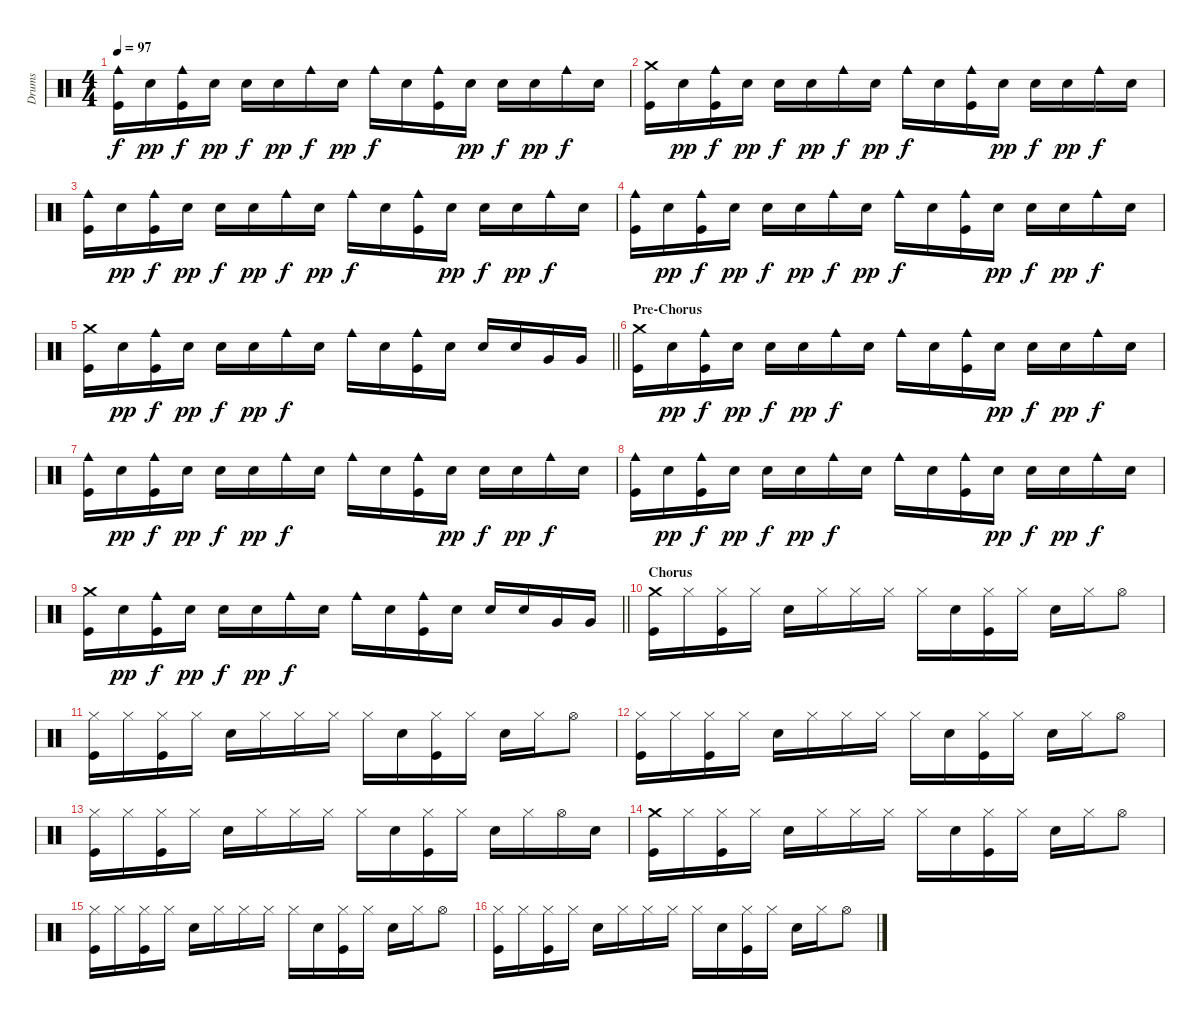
\track ("Drums" "Drums") {instrument percussion}
\staff {score}
\articulation defaults
\ts (4 4)
\tempo 97
\clef neutral
\ks c
("Cowbell medium (hit)" "Kick (hit)").16{dy f} "Electric Snare (hit)".16{dy pp} ("Cowbell medium (hit)" "Kick (hit)").16{dy f} "Electric Snare (hit)".16{dy pp} "Electric Snare (hit)".16{dy f} "Electric Snare (hit)".16{dy pp} "Cowbell medium (hit)".16{dy f} "Electric Snare (hit)".16{dy pp} "Cowbell medium (hit)".16{dy f} "Electric Snare (hit)".16 ("Cowbell medium (hit)" "Kick (hit)").16 "Electric Snare (hit)".16{dy pp} "Electric Snare (hit)".16{dy f} "Electric Snare (hit)".16{dy pp} "Cowbell medium (hit)".16{dy f} "Electric Snare (hit)".16 |
("Crash medium (hit)" "Kick (hit)").16 "Electric Snare (hit)".16{dy pp} ("Cowbell medium (hit)" "Kick (hit)").16{dy f} "Electric Snare (hit)".16{dy pp} "Electric Snare (hit)".16{dy f} "Electric Snare (hit)".16{dy pp} "Cowbell medium (hit)".16{dy f} "Electric Snare (hit)".16{dy pp} "Cowbell medium (hit)".16{dy f} "Electric Snare (hit)".16 ("Cowbell medium (hit)" "Kick (hit)").16 "Electric Snare (hit)".16{dy pp} "Electric Snare (hit)".16{dy f} "Electric Snare (hit)".16{dy pp} "Cowbell medium (hit)".16{dy f} "Electric Snare (hit)".16 |
("Cowbell medium (hit)" "Kick (hit)").16 "Electric Snare (hit)".16{dy pp} ("Cowbell medium (hit)" "Kick (hit)").16{dy f} "Electric Snare (hit)".16{dy pp} "Electric Snare (hit)".16{dy f} "Electric Snare (hit)".16{dy pp} "Cowbell medium (hit)".16{dy f} "Electric Snare (hit)".16{dy pp} "Cowbell medium (hit)".16{dy f} "Electric Snare (hit)".16 ("Cowbell medium (hit)" "Kick (hit)").16 "Electric Snare (hit)".16{dy pp} "Electric Snare (hit)".16{dy f} "Electric Snare (hit)".16{dy pp} "Cowbell medium (hit)".16{dy f} "Electric Snare (hit)".16 |
("Cowbell medium (hit)" "Kick (hit)").16 "Electric Snare (hit)".16{dy pp} ("Cowbell medium (hit)" "Kick (hit)").16{dy f} "Electric Snare (hit)".16{dy pp} "Electric Snare (hit)".16{dy f} "Electric Snare (hit)".16{dy pp} "Cowbell medium (hit)".16{dy f} "Electric Snare (hit)".16{dy pp} "Cowbell medium (hit)".16{dy f} "Electric Snare (hit)".16 ("Cowbell medium (hit)" "Kick (hit)").16 "Electric Snare (hit)".16{dy pp} "Electric Snare (hit)".16{dy f} "Electric Snare (hit)".16{dy pp} "Cowbell medium (hit)".16{dy f} "Electric Snare (hit)".16 |
\barLineRight lightlight
("Crash medium (hit)" "Kick (hit)").16 "Electric Snare (hit)".16{dy pp} ("Cowbell medium (hit)" "Kick (hit)").16{dy f} "Electric Snare (hit)".16{dy pp} "Electric Snare (hit)".16{dy f} "Electric Snare (hit)".16{dy pp} "Cowbell medium (hit)".16{dy f} "Electric Snare (hit)".16 "Cowbell medium (hit)".16 "Electric Snare (hit)".16 ("Cowbell medium (hit)" "Kick (hit)").16 "Electric Snare (hit)".16 "Electric Snare (hit)".16 "Electric Snare (hit)".16 "Very Low Tom (hit)".16 "Very Low Tom (hit)".16 |
\section ("" "Pre-Chorus")
("Crash medium (hit)" "Kick (hit)").16 "Electric Snare (hit)".16{dy pp} ("Cowbell medium (hit)" "Kick (hit)").16{dy f} "Electric Snare (hit)".16{dy pp} "Electric Snare (hit)".16{dy f} "Electric Snare (hit)".16{dy pp} "Cowbell medium (hit)".16{dy f} "Electric Snare (hit)".16 "Cowbell medium (hit)".16 "Electric Snare (hit)".16 ("Cowbell medium (hit)" "Kick (hit)").16 "Electric Snare (hit)".16{dy pp} "Electric Snare (hit)".16{dy f} "Electric Snare (hit)".16{dy pp} "Cowbell medium (hit)".16{dy f} "Electric Snare (hit)".16 |
("Cowbell medium (hit)" "Kick (hit)").16 "Electric Snare (hit)".16{dy pp} ("Cowbell medium (hit)" "Kick (hit)").16{dy f} "Electric Snare (hit)".16{dy pp} "Electric Snare (hit)".16{dy f} "Electric Snare (hit)".16{dy pp} "Cowbell medium (hit)".16{dy f} "Electric Snare (hit)".16 "Cowbell medium (hit)".16 "Electric Snare (hit)".16 ("Cowbell medium (hit)" "Kick (hit)").16 "Electric Snare (hit)".16{dy pp} "Electric Snare (hit)".16{dy f} "Electric Snare (hit)".16{dy pp} "Cowbell medium (hit)".16{dy f} "Electric Snare (hit)".16 |
("Cowbell medium (hit)" "Kick (hit)").16 "Electric Snare (hit)".16{dy pp} ("Cowbell medium (hit)" "Kick (hit)").16{dy f} "Electric Snare (hit)".16{dy pp} "Electric Snare (hit)".16{dy f} "Electric Snare (hit)".16{dy pp} "Cowbell medium (hit)".16{dy f} "Electric Snare (hit)".16 "Cowbell medium (hit)".16 "Electric Snare (hit)".16 ("Cowbell medium (hit)" "Kick (hit)").16 "Electric Snare (hit)".16{dy pp} "Electric Snare (hit)".16{dy f} "Electric Snare (hit)".16{dy pp} "Cowbell medium (hit)".16{dy f} "Electric Snare (hit)".16 |
\barLineRight lightlight
("Crash medium (hit)" "Kick (hit)").16 "Electric Snare (hit)".16{dy pp} ("Cowbell medium (hit)" "Kick (hit)").16{dy f} "Electric Snare (hit)".16{dy pp} "Electric Snare (hit)".16{dy f} "Electric Snare (hit)".16{dy pp} "Cowbell medium (hit)".16{dy f} "Electric Snare (hit)".16 "Cowbell medium (hit)".16 "Electric Snare (hit)".16 ("Cowbell medium (hit)" "Kick (hit)").16 "Electric Snare (hit)".16 "Electric Snare (hit)".16 "Electric Snare (hit)".16 "Very Low Tom (hit)".16 "Very Low Tom (hit)".16 |
\section ("" "Chorus")
("Crash medium (hit)" "Kick (hit)").16 "Hi-Hat (closed)".16 ("Hi-Hat (closed)" "Kick (hit)").16 "Hi-Hat (closed)".16 "Electric Snare (hit)".16 "Hi-Hat (closed)".16 "Hi-Hat (closed)".16 "Hi-Hat (closed)".16 "Hi-Hat (closed)".16 "Electric Snare (hit)".16 ("Hi-Hat (closed)" "Kick (hit)").16 "Hi-Hat (closed)".16 "Electric Snare (hit)".16 "Hi-Hat (closed)".16 "Hi-Hat (open)".8 |
("Hi-Hat (closed)" "Kick (hit)").16 "Hi-Hat (closed)".16 ("Hi-Hat (closed)" "Kick (hit)").16 "Hi-Hat (closed)".16 "Electric Snare (hit)".16 "Hi-Hat (closed)".16 "Hi-Hat (closed)".16 "Hi-Hat (closed)".16 "Hi-Hat (closed)".16 "Electric Snare (hit)".16 ("Hi-Hat (closed)" "Kick (hit)").16 "Hi-Hat (closed)".16 "Electric Snare (hit)".16 "Hi-Hat (closed)".16 "Hi-Hat (open)".8 |
("Hi-Hat (closed)" "Kick (hit)").16 "Hi-Hat (closed)".16 ("Hi-Hat (closed)" "Kick (hit)").16 "Hi-Hat (closed)".16 "Electric Snare (hit)".16 "Hi-Hat (closed)".16 "Hi-Hat (closed)".16 "Hi-Hat (closed)".16 "Hi-Hat (closed)".16 "Electric Snare (hit)".16 ("Hi-Hat (closed)" "Kick (hit)").16 "Hi-Hat (closed)".16 "Electric Snare (hit)".16 "Hi-Hat (closed)".16 "Hi-Hat (open)".8 |
("Hi-Hat (closed)" "Kick (hit)").16 "Hi-Hat (closed)".16 ("Hi-Hat (closed)" "Kick (hit)").16 "Hi-Hat (closed)".16 "Electric Snare (hit)".16 "Hi-Hat (closed)".16 "Hi-Hat (closed)".16 "Hi-Hat (closed)".16 "Hi-Hat (closed)".16 "Electric Snare (hit)".16 ("Hi-Hat (closed)" "Kick (hit)").16 "Hi-Hat (closed)".16 "Electric Snare (hit)".16 "Hi-Hat (closed)".16 "Hi-Hat (open)".16 "Electric Snare (hit)".16 |
("Crash medium (hit)" "Kick (hit)").16 "Hi-Hat (closed)".16 ("Hi-Hat (closed)" "Kick (hit)").16 "Hi-Hat (closed)".16 "Electric Snare (hit)".16 "Hi-Hat (closed)".16 "Hi-Hat (closed)".16 "Hi-Hat (closed)".16 "Hi-Hat (closed)".16 "Electric Snare (hit)".16 ("Hi-Hat (closed)" "Kick (hit)").16 "Hi-Hat (closed)".16 "Electric Snare (hit)".16 "Hi-Hat (closed)".16 "Hi-Hat (open)".8 |
("Hi-Hat (closed)" "Kick (hit)").16 "Hi-Hat (closed)".16 ("Hi-Hat (closed)" "Kick (hit)").16 "Hi-Hat (closed)".16 "Electric Snare (hit)".16 "Hi-Hat (closed)".16 "Hi-Hat (closed)".16 "Hi-Hat (closed)".16 "Hi-Hat (closed)".16 "Electric Snare (hit)".16 ("Hi-Hat (closed)" "Kick (hit)").16 "Hi-Hat (closed)".16 "Electric Snare (hit)".16 "Hi-Hat (closed)".16 "Hi-Hat (open)".8 |
("Hi-Hat (closed)" "Kick (hit)").16 "Hi-Hat (closed)".16 ("Hi-Hat (closed)" "Kick (hit)").16 "Hi-Hat (closed)".16 "Electric Snare (hit)".16 "Hi-Hat (closed)".16 "Hi-Hat (closed)".16 "Hi-Hat (closed)".16 "Hi-Hat (closed)".16 "Electric Snare (hit)".16 ("Hi-Hat (closed)" "Kick (hit)").16 "Hi-Hat (closed)".16 "Electric Snare (hit)".16 "Hi-Hat (closed)".16 "Hi-Hat (open)".8
